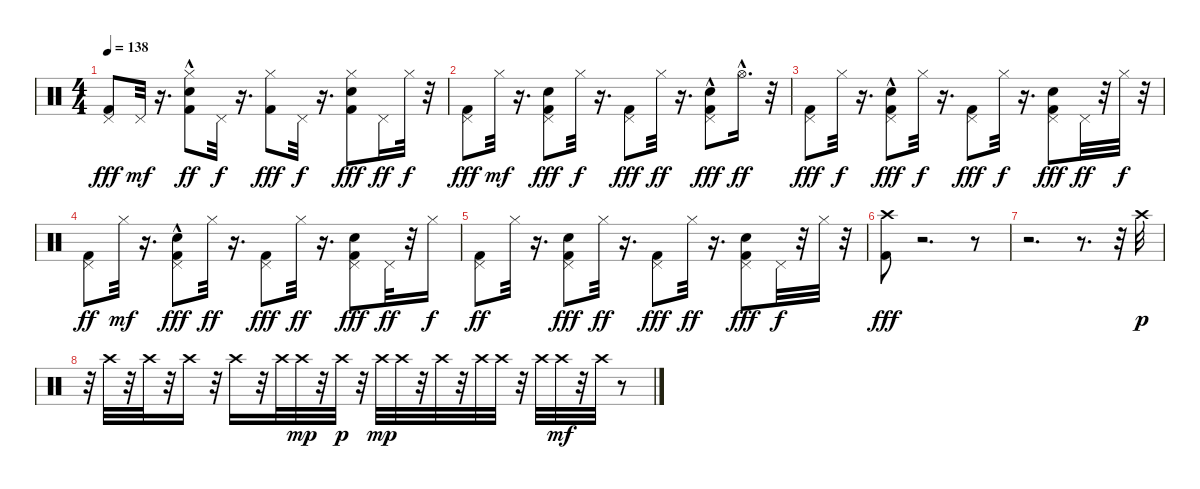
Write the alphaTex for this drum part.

\track "" {instrument percussion}
\staff {score}
\articulation defaults
\ts (4 4)
\tempo 138
\clef neutral
\ks c
("Kick (hit) 2" "Pedal Hi-Hat (hit)").8{dy fff} "Pedal Hi-Hat (hit)".32{dy mf} r.16{d} ("Snare (hit) 2"{hac} "Kick (hit) 2" "Hi-Hat (closed)").8{dy ff} "Pedal Hi-Hat (hit)".32{dy f} r.16{d} ("Hi-Hat (closed)" "Kick (hit) 2").8{dy fff} "Pedal Hi-Hat (hit)".32{dy f} r.16{d} ("Snare (hit) 2" "Hi-Hat (closed)" "Kick (hit) 2").8{dy fff} "Pedal Hi-Hat (hit)".16{dy ff} "Hi-Hat (closed)".32{dy f} r.32 |
("Kick (hit) 2" "Pedal Hi-Hat (hit)").8{dy fff} "Hi-Hat (closed)".32{dy mf} r.16{d} ("Snare (hit) 2" "Kick (hit) 2" "Pedal Hi-Hat (hit)").8{dy fff} "Hi-Hat (closed)".32{dy f} r.16{d} ("Pedal Hi-Hat (hit)" "Kick (hit) 2").8{dy fff} "Hi-Hat (closed)".32{dy ff} r.16{d} ("Pedal Hi-Hat (hit)" "Snare (hit) 2"{hac} "Kick (hit) 2").8{dy fff} "Hi-Hat (open)"{hac}.16{d dy ff} r.32 |
("Kick (hit) 2" "Pedal Hi-Hat (hit)").8{dy fff} "Hi-Hat (closed)".32{dy f} r.16{d} ("Pedal Hi-Hat (hit)" "Snare (hit) 2"{hac} "Kick (hit) 2").8{dy fff} "Hi-Hat (closed)".32{dy f} r.16{d} ("Kick (hit) 2" "Pedal Hi-Hat (hit)").8{dy fff} "Hi-Hat (closed)".32{dy f} r.16{d} ("Kick (hit) 2" "Snare (hit) 2" "Pedal Hi-Hat (hit)").8{dy fff} "Pedal Hi-Hat (hit)".32{dy ff} r.32 "Hi-Hat (closed)".32{dy f} r.32 |
("Kick (hit) 2" "Pedal Hi-Hat (hit)").8{dy ff} "Hi-Hat (closed)".32{dy mf} r.16{d} ("Snare (hit) 2"{hac} "Kick (hit) 2" "Pedal Hi-Hat (hit)").8{dy fff} "Hi-Hat (closed)".32{dy ff} r.16{d} ("Pedal Hi-Hat (hit)" "Kick (hit) 2").8{dy fff} "Hi-Hat (closed)".32{dy ff} r.16{d} ("Snare (hit) 2" "Kick (hit) 2" "Pedal Hi-Hat (hit)").8{dy fff} "Pedal Hi-Hat (hit)".32{dy ff} r.32 "Hi-Hat (closed)".16{dy f} |
("Kick (hit) 2" "Pedal Hi-Hat (hit)").8{dy ff} "Hi-Hat (closed)".32 r.16{d} ("Pedal Hi-Hat (hit)" "Snare (hit) 2" "Kick (hit) 2").8{dy fff} "Hi-Hat (closed)".32{dy ff} r.16{d} ("Kick (hit) 2" "Pedal Hi-Hat (hit)").8{dy fff} "Hi-Hat (closed)".32{dy ff} r.16{d} ("Pedal Hi-Hat (hit)" "Snare (hit) 2" "Kick (hit) 2").8{dy fff} "Pedal Hi-Hat (hit)".32{dy f} r.32 "Hi-Hat (closed)".32 r.32 |
("Crash high (hit)" "Kick (hit) 2").8{dy fff} r.2{d} r.8 |
r.2{d} r.8{d} r.32 "Crash high (hit)".32{dy p} |
r.32 "Crash high (hit)".32 r.32 "Crash high (hit)".32 r.32 "Crash high (hit)".16 r.32 "Crash high (hit)".16 r.32 "Crash high (hit)".32 "Crash high (hit)".32{dy mp} r.32 "Crash high (hit)".32{dy p} r.32 "Crash high (hit)".32{dy mp} "Crash high (hit)".32 r.32 "Crash high (hit)".32 r.32 "Crash high (hit)".32 "Crash high (hit)".32 r.32 "Crash high (hit)".32 "Crash high (hit)".32{dy mf} r.32 "Crash high (hit)".32 r.8
